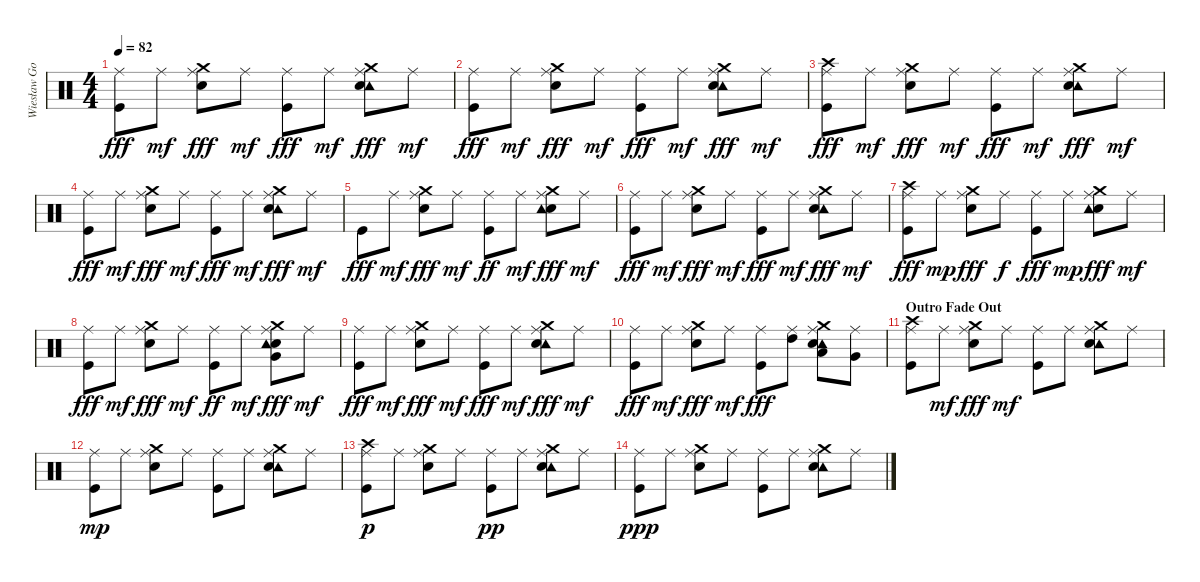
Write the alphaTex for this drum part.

\track ("Wiesław Gola" "Wiesław Go") {instrument percussion}
\staff {score}
\articulation defaults
\ts (4 4)
\tempo 82
\clef neutral
\ks c
("Ride (middle)" "Kick (hit)").8{dy fff} "Ride (middle)".8{dy mf} ("Ride (middle)" "Crash medium (hit)" "Snare (hit) 2").8{dy fff} "Ride (middle)".8{dy mf} ("Kick (hit)" "Ride (middle)").8{dy fff} "Ride (middle)".8{dy mf} ("Crash medium (hit)" "Tambourine (hit)" "Snare (hit) 2" "Ride (middle)").8{dy fff} "Ride (middle)".8{dy mf} |
("Ride (middle)" "Kick (hit)").8{dy fff} "Ride (middle)".8{dy mf} ("Ride (middle)" "Crash medium (hit)" "Snare (hit) 2").8{dy fff} "Ride (middle)".8{dy mf} ("Ride (middle)" "Kick (hit)").8{dy fff} "Ride (middle)".8{dy mf} ("Ride (middle)" "Crash medium (hit)" "Tambourine (hit)" "Snare (hit) 2").8{dy fff} "Ride (middle)".8{dy mf} |
("Crash high (hit)" "Kick (hit)" "Ride (middle)").8{dy fff} "Ride (middle)".8{dy mf} ("Ride (middle)" "Crash medium (hit)" "Snare (hit) 2").8{dy fff} "Ride (middle)".8{dy mf} ("Ride (middle)" "Kick (hit)").8{dy fff} "Ride (middle)".8{dy mf} ("Crash medium (hit)" "Tambourine (hit)" "Snare (hit) 2" "Ride (middle)").8{dy fff} "Ride (middle)".8{dy mf} |
("Ride (middle)" "Kick (hit)").8{dy fff} "Ride (middle)".8{dy mf} ("Ride (middle)" "Crash medium (hit)" "Snare (hit) 2").8{dy fff} "Ride (middle)".8{dy mf} ("Kick (hit)" "Ride (middle)").8{dy fff} "Ride (middle)".8{dy mf} ("Crash medium (hit)" "Tambourine (hit)" "Snare (hit) 2" "Ride (middle)").8{dy fff} "Ride (middle)".8{dy mf} |
"Kick (hit)".8{dy fff} "Ride (middle)".8{dy mf} ("Snare (hit) 2" "Ride (middle)" "Crash medium (hit)").8{dy fff} "Ride (middle)".8{dy mf} ("Kick (hit)" "Ride (middle)").8{dy ff} "Ride (middle)".8{dy mf} ("Snare (hit) 2" "Ride (middle)" "Crash medium (hit)" "Tambourine (hit)").8{dy fff} "Ride (middle)".8{dy mf} |
("Ride (middle)" "Kick (hit)").8{dy fff} "Ride (middle)".8{dy mf} ("Ride (middle)" "Crash medium (hit)" "Snare (hit) 2").8{dy fff} "Ride (middle)".8{dy mf} ("Kick (hit)" "Ride (middle)").8{dy fff} "Ride (middle)".8{dy mf} ("Crash medium (hit)" "Tambourine (hit)" "Snare (hit) 2" "Ride (middle)").8{dy fff} "Ride (middle)".8{dy mf} |
("Ride (middle)" "Crash high (hit)" "Kick (hit)").8{dy fff} "Ride (middle)".8{dy mp} ("Snare (hit) 2" "Ride (middle)" "Crash medium (hit)").8{dy fff} "Ride (middle)".8{dy f} ("Kick (hit)" "Ride (middle)").8{dy fff} "Ride (middle)".8{dy mp} ("Snare (hit) 2" "Crash medium (hit)" "Tambourine (hit)" "Ride (middle)").8{dy fff} "Ride (middle)".8{dy mf} |
("Kick (hit)" "Ride (middle)").8{dy fff} "Ride (middle)".8{dy mf} ("Snare (hit) 2" "Ride (middle)" "Crash medium (hit)").8{dy fff} "Ride (middle)".8{dy mf} ("Kick (hit)" "Ride (middle)").8{dy ff} "Ride (middle)".8{dy mf} ("Snare (hit) 2" "Ride (middle)" "Crash medium (hit)" "Very Low Tom (hit)" "Tambourine (hit)").8{dy fff} "Ride (middle)".8{dy mf} |
("Ride (middle)" "Kick (hit)").8{dy fff} "Ride (middle)".8{dy mf} ("Ride (middle)" "Crash medium (hit)" "Snare (hit) 2").8{dy fff} "Ride (middle)".8{dy mf} ("Kick (hit)" "Ride (middle)").8{dy fff} "Ride (middle)".8{dy mf} ("Crash medium (hit)" "Tambourine (hit)" "Snare (hit) 2" "Ride (middle)").8{dy fff} "Ride (middle)".8{dy mf} |
("Ride (middle)" "Kick (hit)").8{dy fff} "Ride (middle)".8{dy mf} ("Ride (middle)" "Crash medium (hit)" "Snare (hit) 2").8{dy fff} "Ride (middle)".8{dy mf} ("Ride (middle)" "Kick (hit)").8{dy fff} ("Ride (middle)" "High Tom (hit)").8 ("Ride (middle)" "Low Tom (hit)" "Crash medium (hit)" "Tambourine (hit)" "Snare (hit) 2").8 ("Ride (middle)" "Very Low Tom (hit)").8 |
\section ("" "Outro Fade Out")
("Crash high (hit)" "Kick (hit)" "Ride (middle)").8 "Ride (middle)".8{dy mf} ("Ride (middle)" "Crash medium (hit)" "Snare (hit) 2").8{dy fff} "Ride (middle)".8{dy mf} ("Ride (middle)" "Kick (hit)").8 "Ride (middle)".8 ("Crash medium (hit)" "Tambourine (hit)" "Snare (hit) 2" "Ride (middle)").8 "Ride (middle)".8 |
("Ride (middle)" "Kick (hit)").8{dy mp} "Ride (middle)".8 ("Ride (middle)" "Crash medium (hit)" "Snare (hit) 2").8 "Ride (middle)".8 ("Kick (hit)" "Ride (middle)").8 "Ride (middle)".8 ("Crash medium (hit)" "Tambourine (hit)" "Snare (hit) 2" "Ride (middle)").8 "Ride (middle)".8 |
("Crash high (hit)" "Kick (hit)" "Ride (middle)").8{dy p} "Ride (middle)".8 ("Ride (middle)" "Crash medium (hit)" "Snare (hit) 2").8 "Ride (middle)".8 ("Ride (middle)" "Kick (hit)").8{dy pp} "Ride (middle)".8 ("Crash medium (hit)" "Tambourine (hit)" "Snare (hit) 2" "Ride (middle)").8 "Ride (middle)".8 |
("Ride (middle)" "Kick (hit)").8{dy ppp} "Ride (middle)".8 ("Ride (middle)" "Crash medium (hit)" "Snare (hit) 2").8 "Ride (middle)".8 ("Kick (hit)" "Ride (middle)").8 "Ride (middle)".8 ("Crash medium (hit)" "Tambourine (hit)" "Snare (hit) 2" "Ride (middle)").8 "Ride (middle)".8
